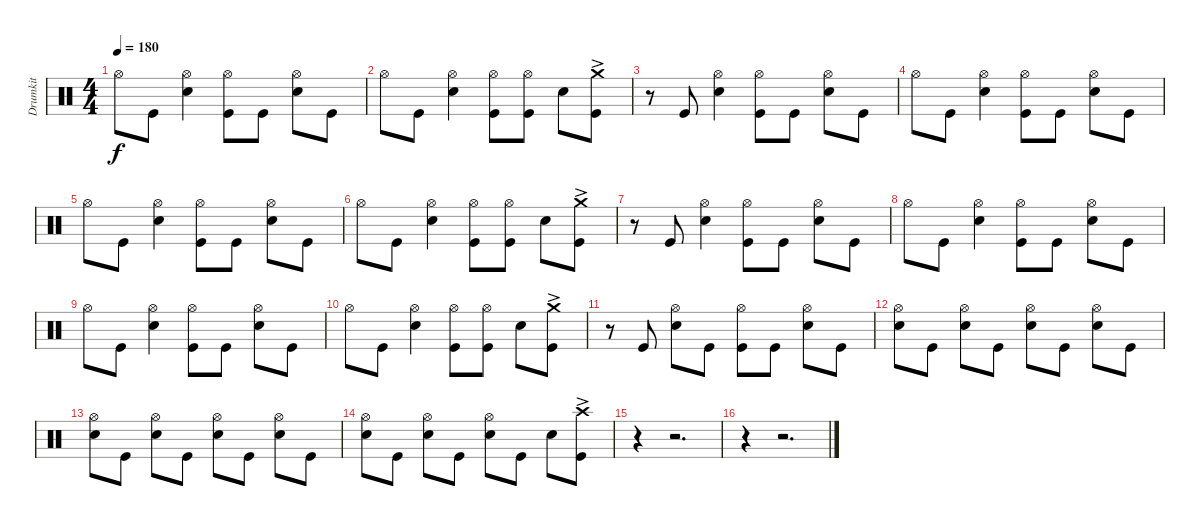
\track ("Drumkit" "Drumkit") {instrument percussion}
\staff {score}
\articulation defaults
\ts (4 4)
\tempo 180
\clef neutral
\ks c "Hi-Hat (open)".8{dy f} "Kick (hit)".8
("Hi-Hat (open)" "Snare (hit) 2").4 ("Hi-Hat (open)" "Kick (hit)").8 "Kick (hit)".8 ("Hi-Hat (open)" "Snare (hit) 2").8 "Kick (hit)".8 |
"Hi-Hat (open)".8 "Kick (hit)".8 ("Hi-Hat (open)" "Snare (hit) 2").4 ("Hi-Hat (open)" "Kick (hit)").8 ("Hi-Hat (open)" "Kick (hit)").8 "Snare (hit) 2".8 ("Crash medium (hit)"{ac} "Kick (hit)").8 |
r.8 "Kick (hit)".8 ("Hi-Hat (open)" "Snare (hit) 2").4 ("Hi-Hat (open)" "Kick (hit)").8 "Kick (hit)".8 ("Hi-Hat (open)" "Snare (hit) 2").8 "Kick (hit)".8 |
"Hi-Hat (open)".8 "Kick (hit)".8 ("Hi-Hat (open)" "Snare (hit) 2").4 ("Hi-Hat (open)" "Kick (hit)").8 "Kick (hit)".8 ("Hi-Hat (open)" "Snare (hit) 2").8 "Kick (hit)".8 |
"Hi-Hat (open)".8 "Kick (hit)".8 ("Hi-Hat (open)" "Snare (hit) 2").4 ("Hi-Hat (open)" "Kick (hit)").8 "Kick (hit)".8 ("Hi-Hat (open)" "Snare (hit) 2").8 "Kick (hit)".8 |
"Hi-Hat (open)".8 "Kick (hit)".8 ("Hi-Hat (open)" "Snare (hit) 2").4 ("Hi-Hat (open)" "Kick (hit)").8 ("Hi-Hat (open)" "Kick (hit)").8 "Snare (hit) 2".8 ("Crash medium (hit)"{ac} "Kick (hit)").8 |
r.8 "Kick (hit)".8 ("Hi-Hat (open)" "Snare (hit) 2").4 ("Hi-Hat (open)" "Kick (hit)").8 "Kick (hit)".8 ("Hi-Hat (open)" "Snare (hit) 2").8 "Kick (hit)".8 |
"Hi-Hat (open)".8 "Kick (hit)".8 ("Hi-Hat (open)" "Snare (hit) 2").4 ("Hi-Hat (open)" "Kick (hit)").8 "Kick (hit)".8 ("Hi-Hat (open)" "Snare (hit) 2").8 "Kick (hit)".8 |
"Hi-Hat (open)".8 "Kick (hit)".8 ("Hi-Hat (open)" "Snare (hit) 2").4 ("Hi-Hat (open)" "Kick (hit)").8 "Kick (hit)".8 ("Hi-Hat (open)" "Snare (hit) 2").8 "Kick (hit)".8 |
"Hi-Hat (open)".8 "Kick (hit)".8 ("Hi-Hat (open)" "Snare (hit) 2").4 ("Hi-Hat (open)" "Kick (hit)").8 ("Hi-Hat (open)" "Kick (hit)").8 "Snare (hit) 2".8 ("Crash medium (hit)"{ac} "Kick (hit)").8 |
r.8 "Kick (hit)".8 ("Hi-Hat (open)" "Snare (hit) 2").8 "Kick (hit)".8 ("Hi-Hat (open)" "Kick (hit)").8 "Kick (hit)".8 ("Hi-Hat (open)" "Snare (hit) 2").8 "Kick (hit)".8 |
("Hi-Hat (open)" "Snare (hit) 2").8 "Kick (hit)".8 ("Hi-Hat (open)" "Snare (hit) 2").8 "Kick (hit)".8 ("Hi-Hat (open)" "Snare (hit) 2").8 "Kick (hit)".8 ("Hi-Hat (open)" "Snare (hit) 2").8 "Kick (hit)".8 |
("Hi-Hat (open)" "Snare (hit) 2").8 "Kick (hit)".8 ("Hi-Hat (open)" "Snare (hit) 2").8 "Kick (hit)".8 ("Hi-Hat (open)" "Snare (hit) 2").8 "Kick (hit)".8 ("Hi-Hat (open)" "Snare (hit) 2").8 "Kick (hit)".8 |
("Hi-Hat (open)" "Snare (hit) 2").8 "Kick (hit)".8 ("Hi-Hat (open)" "Snare (hit) 2").8 "Kick (hit)".8 ("Hi-Hat (open)" "Snare (hit) 2").8 "Kick (hit)".8 "Snare (hit) 2".8 ("Crash high (hit)"{ac} "Kick (hit)").8 |
r.4 r.2{d} |
r.4 r.2{d}
